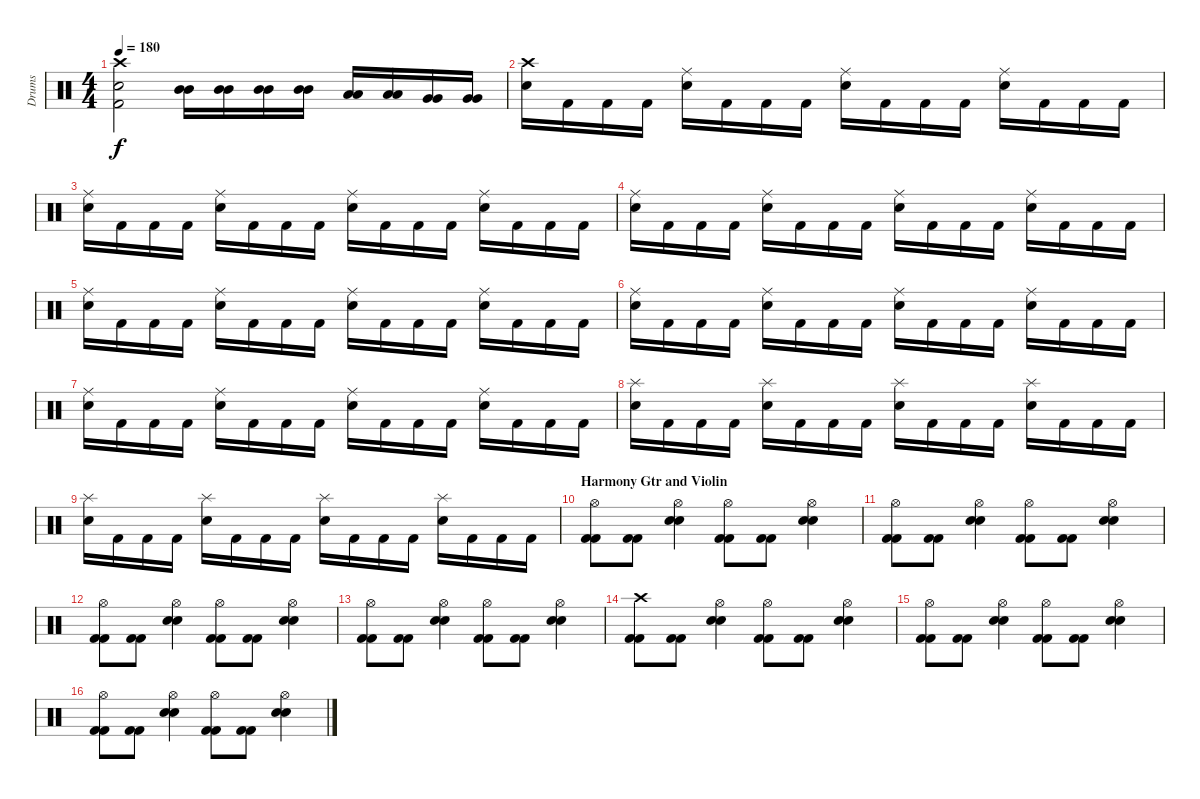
\track ("Drums" "Drums") {instrument percussion}
\staff {score}
\articulation defaults
\ts (4 4)
\tempo 180
\clef neutral
\ks c
("Crash high (hit)" "Snare (hit) 2" "Kick (hit) 2").2{dy f} ("Mid Tom (hit)" "Mid Tom (hit)").16 ("Mid Tom (hit)" "Mid Tom (hit)").16 ("Mid Tom (hit)" "Mid Tom (hit)").16 ("Mid Tom (hit)" "Mid Tom (hit)").16 ("Low Tom (hit)" "Low Tom (hit)").16 ("Low Tom (hit)" "Low Tom (hit)").16 ("Very Low Tom (hit)" "Very Low Tom (hit)").16 ("Very Low Tom (hit)" "Very Low Tom (hit)").16 |
("Crash high (hit)" "Snare (hit) 2").16 "Kick (hit) 2".16 "Kick (hit) 2".16 "Kick (hit) 2".16 ("Ride (middle)" "Snare (hit) 2").16 "Kick (hit) 2".16 "Kick (hit) 2".16 "Kick (hit) 2".16 ("Ride (middle)" "Snare (hit) 2").16 "Kick (hit) 2".16 "Kick (hit) 2".16 "Kick (hit) 2".16 ("Ride (middle)" "Snare (hit) 2").16 "Kick (hit) 2".16 "Kick (hit) 2".16 "Kick (hit) 2".16 |
("Ride (middle)" "Snare (hit) 2").16 "Kick (hit) 2".16 "Kick (hit) 2".16 "Kick (hit) 2".16 ("Ride (middle)" "Snare (hit) 2").16 "Kick (hit) 2".16 "Kick (hit) 2".16 "Kick (hit) 2".16 ("Ride (middle)" "Snare (hit) 2").16 "Kick (hit) 2".16 "Kick (hit) 2".16 "Kick (hit) 2".16 ("Ride (middle)" "Snare (hit) 2").16 "Kick (hit) 2".16 "Kick (hit) 2".16 "Kick (hit) 2".16 |
("Ride (middle)" "Snare (hit) 2").16 "Kick (hit) 2".16 "Kick (hit) 2".16 "Kick (hit) 2".16 ("Ride (middle)" "Snare (hit) 2").16 "Kick (hit) 2".16 "Kick (hit) 2".16 "Kick (hit) 2".16 ("Ride (middle)" "Snare (hit) 2").16 "Kick (hit) 2".16 "Kick (hit) 2".16 "Kick (hit) 2".16 ("Ride (middle)" "Snare (hit) 2").16 "Kick (hit) 2".16 "Kick (hit) 2".16 "Kick (hit) 2".16 |
("Ride (middle)" "Snare (hit) 2").16 "Kick (hit) 2".16 "Kick (hit) 2".16 "Kick (hit) 2".16 ("Ride (middle)" "Snare (hit) 2").16 "Kick (hit) 2".16 "Kick (hit) 2".16 "Kick (hit) 2".16 ("Ride (middle)" "Snare (hit) 2").16 "Kick (hit) 2".16 "Kick (hit) 2".16 "Kick (hit) 2".16 ("Ride (middle)" "Snare (hit) 2").16 "Kick (hit) 2".16 "Kick (hit) 2".16 "Kick (hit) 2".16 |
("Ride (middle)" "Snare (hit) 2").16 "Kick (hit) 2".16 "Kick (hit) 2".16 "Kick (hit) 2".16 ("Ride (middle)" "Snare (hit) 2").16 "Kick (hit) 2".16 "Kick (hit) 2".16 "Kick (hit) 2".16 ("Ride (middle)" "Snare (hit) 2").16 "Kick (hit) 2".16 "Kick (hit) 2".16 "Kick (hit) 2".16 ("Ride (middle)" "Snare (hit) 2").16 "Kick (hit) 2".16 "Kick (hit) 2".16 "Kick (hit) 2".16 |
("Ride (middle)" "Snare (hit) 2").16 "Kick (hit) 2".16 "Kick (hit) 2".16 "Kick (hit) 2".16 ("Ride (middle)" "Snare (hit) 2").16 "Kick (hit) 2".16 "Kick (hit) 2".16 "Kick (hit) 2".16 ("Ride (middle)" "Snare (hit) 2").16 "Kick (hit) 2".16 "Kick (hit) 2".16 "Kick (hit) 2".16 ("Ride (middle)" "Snare (hit) 2").16 "Kick (hit) 2".16 "Kick (hit) 2".16 "Kick (hit) 2".16 |
("Splash (hit)" "Snare (hit) 2").16 "Kick (hit) 2".16 "Kick (hit) 2".16 "Kick (hit) 2".16 ("Splash (hit)" "Snare (hit) 2").16 "Kick (hit) 2".16 "Kick (hit) 2".16 "Kick (hit) 2".16 ("Splash (hit)" "Snare (hit) 2").16 "Kick (hit) 2".16 "Kick (hit) 2".16 "Kick (hit) 2".16 ("Splash (hit)" "Snare (hit) 2").16 "Kick (hit) 2".16 "Kick (hit) 2".16 "Kick (hit) 2".16 |
("Splash (hit)" "Snare (hit) 2").16 "Kick (hit) 2".16 "Kick (hit) 2".16 "Kick (hit) 2".16 ("Splash (hit)" "Snare (hit) 2").16 "Kick (hit) 2".16 "Kick (hit) 2".16 "Kick (hit) 2".16 ("Splash (hit)" "Snare (hit) 2").16 "Kick (hit) 2".16 "Kick (hit) 2".16 "Kick (hit) 2".16 ("Splash (hit)" "Snare (hit) 2").16 "Kick (hit) 2".16 "Kick (hit) 2".16 "Kick (hit) 2".16 |
\section ("" "Harmony Gtr and Violin")
("Hi-Hat (open)" "Kick (hit) 2" "Kick (hit) 2").8 ("Kick (hit) 2" "Kick (hit) 2").8 ("Hi-Hat (open)" "Snare (hit) 2" "Snare (hit) 2").4 ("Hi-Hat (open)" "Kick (hit) 2" "Kick (hit) 2").8 ("Kick (hit) 2" "Kick (hit) 2").8 ("Hi-Hat (open)" "Snare (hit) 2" "Snare (hit) 2").4 |
("Hi-Hat (open)" "Kick (hit) 2" "Kick (hit) 2").8 ("Kick (hit) 2" "Kick (hit) 2").8 ("Hi-Hat (open)" "Snare (hit) 2" "Snare (hit) 2").4 ("Hi-Hat (open)" "Kick (hit) 2" "Kick (hit) 2").8 ("Kick (hit) 2" "Kick (hit) 2").8 ("Hi-Hat (open)" "Snare (hit) 2" "Snare (hit) 2").4 |
("Hi-Hat (open)" "Kick (hit) 2" "Kick (hit) 2").8 ("Kick (hit) 2" "Kick (hit) 2").8 ("Hi-Hat (open)" "Snare (hit) 2" "Snare (hit) 2").4 ("Hi-Hat (open)" "Kick (hit) 2" "Kick (hit) 2").8 ("Kick (hit) 2" "Kick (hit) 2").8 ("Hi-Hat (open)" "Snare (hit) 2" "Snare (hit) 2").4 |
("Hi-Hat (open)" "Kick (hit) 2" "Kick (hit) 2").8 ("Kick (hit) 2" "Kick (hit) 2").8 ("Hi-Hat (open)" "Snare (hit) 2" "Snare (hit) 2").4 ("Hi-Hat (open)" "Kick (hit) 2" "Kick (hit) 2").8 ("Kick (hit) 2" "Kick (hit) 2").8 ("Hi-Hat (open)" "Snare (hit) 2" "Snare (hit) 2").4 |
("Crash high (hit)" "Kick (hit) 2" "Kick (hit) 2").8 ("Kick (hit) 2" "Kick (hit) 2").8 ("Hi-Hat (open)" "Snare (hit) 2" "Snare (hit) 2").4 ("Hi-Hat (open)" "Kick (hit) 2" "Kick (hit) 2").8 ("Kick (hit) 2" "Kick (hit) 2").8 ("Hi-Hat (open)" "Snare (hit) 2" "Snare (hit) 2").4 |
("Hi-Hat (open)" "Kick (hit) 2" "Kick (hit) 2").8 ("Kick (hit) 2" "Kick (hit) 2").8 ("Hi-Hat (open)" "Snare (hit) 2" "Snare (hit) 2").4 ("Hi-Hat (open)" "Kick (hit) 2" "Kick (hit) 2").8 ("Kick (hit) 2" "Kick (hit) 2").8 ("Hi-Hat (open)" "Snare (hit) 2" "Snare (hit) 2").4 |
("Hi-Hat (open)" "Kick (hit) 2" "Kick (hit) 2").8 ("Kick (hit) 2" "Kick (hit) 2").8 ("Hi-Hat (open)" "Snare (hit) 2" "Snare (hit) 2").4 ("Hi-Hat (open)" "Kick (hit) 2" "Kick (hit) 2").8 ("Kick (hit) 2" "Kick (hit) 2").8 ("Hi-Hat (open)" "Snare (hit) 2" "Snare (hit) 2").4
